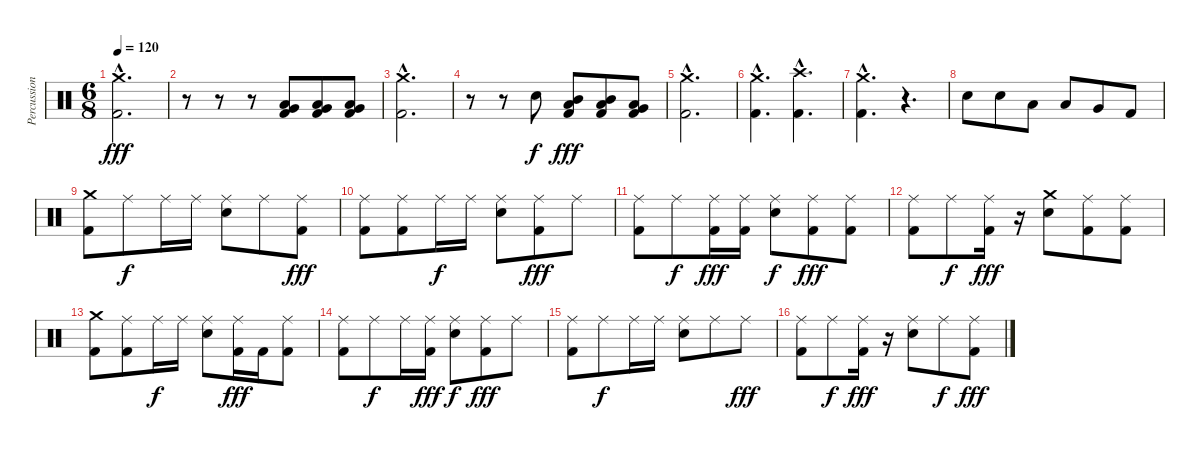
\track ("Percussion" "Percussion") {instrument percussion}
\staff {score}
\articulation defaults
\ts (6 8)
\tempo 120
\clef neutral
\ks c
("Crash medium (hit)"{hac} "Kick (hit) 2"{hac}).2{d dy fff} |
r.8 r.8 r.8 ("Very Low Tom (hit)" "Low Tom (hit)" "Kick (hit) 2").8 ("Very Low Tom (hit)" "Low Tom (hit)" "Kick (hit) 2").8 ("Low Tom (hit)" "Very Low Tom (hit)" "Kick (hit) 2").8 |
("Crash medium (hit)"{hac} "Kick (hit) 2"{hac}).2{d} |
r.8 r.8 "Electric Snare (hit)".8{dy f} ("Mid Tom (hit)" "Low Tom (hit)" "Kick (hit) 2").8{dy fff} ("Mid Tom (hit)" "Low Tom (hit)" "Kick (hit) 2").8 ("Very Low Tom (hit)" "Low Tom (hit)" "Kick (hit) 2").8 |
("Crash medium (hit)"{hac} "Kick (hit) 2"{hac}).2{d} |
("Crash medium (hit)"{hac} "Kick (hit) 2"{hac}).4{d} ("Crash high (hit)"{hac} "Kick (hit) 2"{hac}).4{d} |
("Crash medium (hit)"{hac} "Kick (hit) 2"{hac}).4{d} r.4{d} |
"Electric Snare (hit)".8 "Electric Snare (hit)".8 "Low Tom (hit)".8 "Low Tom (hit)".8 "Very Low Tom (hit)".8 "Kick (hit) 2".8 |
("Crash medium (hit)" "Kick (hit) 2").8 "Ride (middle)".8{dy f} "Ride (middle)".16 "Ride (middle)".16 ("Ride (middle)" "Electric Snare (hit)").8 "Ride (middle)".8 ("Ride (middle)" "Kick (hit) 2").8{dy fff} |
("Ride (middle)" "Kick (hit) 2").8 ("Ride (middle)" "Kick (hit) 2").8 "Ride (middle)".16{dy f} "Ride (middle)".16 ("Ride (middle)" "Electric Snare (hit)").8 ("Ride (middle)" "Kick (hit) 2").8{dy fff} "Ride (middle)".8 |
("Ride (middle)" "Kick (hit) 2").8 "Ride (middle)".8{dy f} ("Ride (middle)" "Kick (hit) 2").16{dy fff} ("Ride (middle)" "Kick (hit) 2").16 ("Ride (middle)" "Electric Snare (hit)").8{dy f} ("Ride (middle)" "Kick (hit) 2").8{dy fff} ("Ride (middle)" "Kick (hit) 2").8 |
("Ride (middle)" "Kick (hit) 2").8 "Ride (middle)".8{dy f} ("Ride (middle)" "Kick (hit) 2").16{dy fff} r.16 ("Crash medium (hit)" "Electric Snare (hit)").8 ("Ride (middle)" "Kick (hit) 2").8 ("Ride (middle)" "Kick (hit) 2").8 |
("Crash medium (hit)" "Kick (hit) 2").8 ("Ride (middle)" "Kick (hit) 2").8 "Ride (middle)".16{dy f} "Ride (middle)".16 ("Ride (middle)" "Electric Snare (hit)").8 ("Ride (middle)" "Kick (hit) 2").16{dy fff} "Kick (hit) 2".16 ("Ride (middle)" "Kick (hit) 2").8 |
("Ride (middle)" "Kick (hit) 2").8 "Ride (middle)".8{dy f} "Ride (middle)".16 ("Ride (middle)" "Kick (hit) 2").16{dy fff} ("Ride (middle)" "Electric Snare (hit)").8{dy f} ("Ride (middle)" "Kick (hit) 2").8{dy fff} "Ride (middle)".8 |
("Ride (middle)" "Kick (hit) 2").8 "Ride (middle)".8{dy f} "Ride (middle)".16 "Ride (middle)".16 ("Ride (middle)" "Electric Snare (hit)").8 "Ride (middle)".8 "Ride (middle)".8{dy fff} |
("Ride (middle)" "Kick (hit) 2").8 "Ride (middle)".8{dy f} ("Ride (middle)" "Kick (hit) 2").16{dy fff} r.16 ("Ride (middle)" "Electric Snare (hit)").8 "Ride (middle)".8{dy f} ("Ride (middle)" "Kick (hit) 2").8{dy fff}
